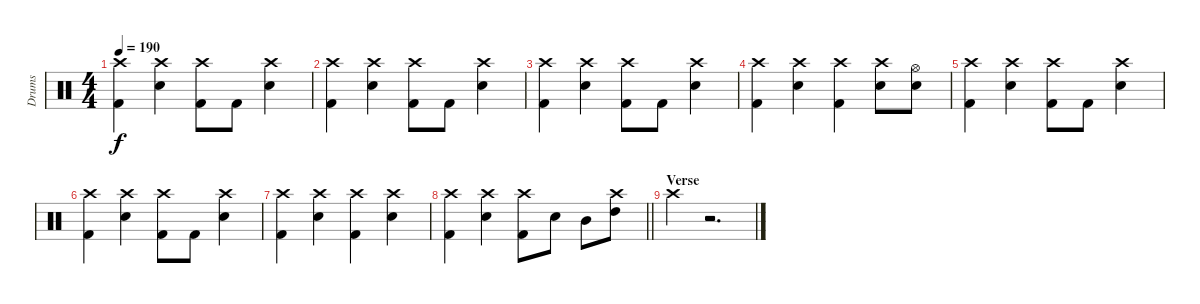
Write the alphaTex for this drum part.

\track ("Drums" "Drums") {instrument percussion}
\staff {score}
\articulation defaults
\ts (4 4)
\tempo 190
\clef neutral
\ks c
("Crash high (hit)" "Kick (hit) 2").4{dy f} ("Crash high (hit)" "Electric Snare (hit)").4 ("Crash high (hit)" "Kick (hit) 2").8 "Kick (hit) 2".8 ("Crash high (hit)" "Electric Snare (hit)").4 |
("Crash high (hit)" "Kick (hit) 2").4 ("Crash high (hit)" "Electric Snare (hit)").4 ("Crash high (hit)" "Kick (hit) 2").8 "Kick (hit) 2".8 ("Crash high (hit)" "Electric Snare (hit)").4 |
("Crash high (hit)" "Kick (hit) 2").4 ("Crash high (hit)" "Electric Snare (hit)").4 ("Crash high (hit)" "Kick (hit) 2").8 "Kick (hit) 2".8 ("Crash high (hit)" "Electric Snare (hit)").4 |
("Crash high (hit)" "Kick (hit) 2").4 ("Crash high (hit)" "Electric Snare (hit)").4 ("Crash high (hit)" "Kick (hit) 2").4 ("Crash high (hit)" "Electric Snare (hit)").8 ("Hi-Hat (open)" "Electric Snare (hit)").8 |
("Crash high (hit)" "Kick (hit) 2").4 ("Crash high (hit)" "Electric Snare (hit)").4 ("Crash high (hit)" "Kick (hit) 2").8 "Kick (hit) 2".8 ("Crash high (hit)" "Electric Snare (hit)").4 |
("Crash high (hit)" "Kick (hit) 2").4 ("Crash high (hit)" "Electric Snare (hit)").4 ("Crash high (hit)" "Kick (hit) 2").8 "Kick (hit) 2".8 ("Crash high (hit)" "Electric Snare (hit)").4 |
("Crash high (hit)" "Kick (hit) 2").4 ("Crash high (hit)" "Electric Snare (hit)").4 ("Crash high (hit)" "Kick (hit) 2").4 ("Crash high (hit)" "Electric Snare (hit)").4 |
\barLineRight lightlight
("Crash high (hit)" "Kick (hit) 2").4 ("Crash high (hit)" "Electric Snare (hit)").4 ("Crash high (hit)" "Kick (hit) 2").8 "Electric Snare (hit)".8 "Mid Tom (hit)".8 ("Crash high (hit)" "High Tom (hit)").8 |
\section ("" "Verse")
"Crash high (hit)".4 r.2{d}
